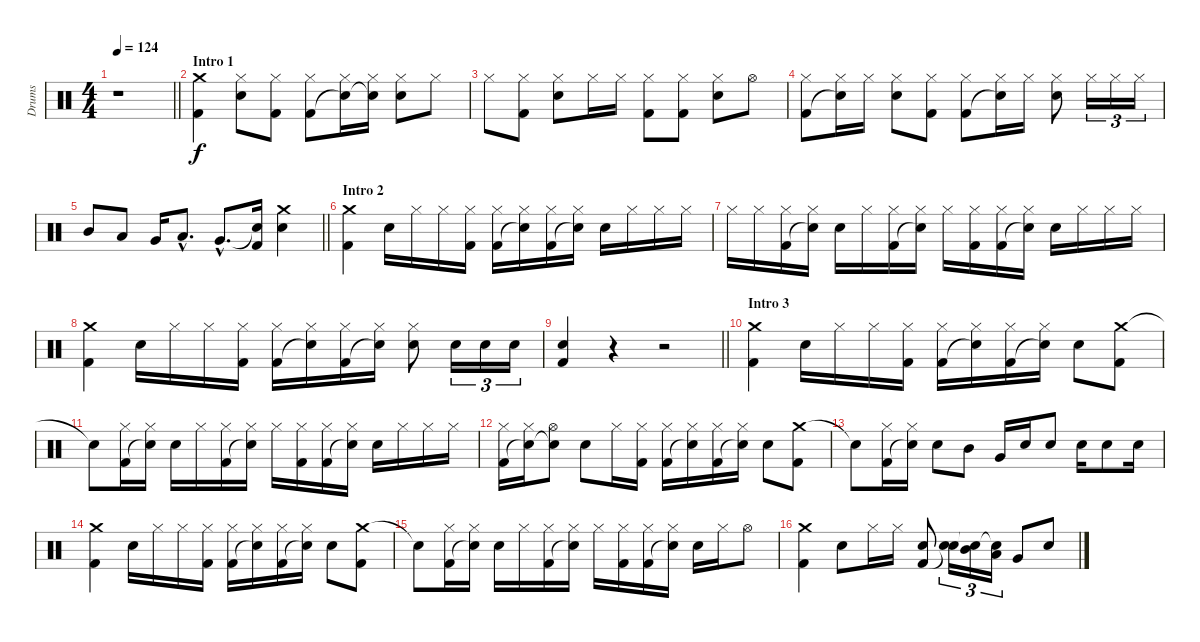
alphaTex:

\track ("Drums" "Drums") {instrument percussion}
\staff {score}
\articulation defaults
\ts (4 4)
\tempo 124
\clef neutral
\barLineRight lightlight
\ks aminor
r.1{dy f} |
\section ("" "Intro 1")
("Crash medium (hit)" "Kick (hit) 2").4 ("Hi-Hat (closed)" "Electric Snare (hit)").8 ("Hi-Hat (closed)" "Kick (hit) 2").8 ("Hi-Hat (closed)" "Kick (hit) 2").8 ("Hi-Hat (closed)" "Snare (hit)"{t}).16 ("Hi-Hat (closed)" "Snare (hit)"{t}).16 ("Hi-Hat (closed)" "Electric Snare (hit)").8 "Hi-Hat (closed)".8 |
"Hi-Hat (closed)".8 ("Hi-Hat (closed)" "Kick (hit) 2").8 ("Hi-Hat (closed)" "Electric Snare (hit)").8 "Hi-Hat (closed)".16 "Hi-Hat (closed)".16 ("Hi-Hat (closed)" "Kick (hit) 2").8 ("Hi-Hat (closed)" "Kick (hit) 2").8 ("Hi-Hat (closed)" "Electric Snare (hit)").8 "Hi-Hat (open)".8 |
("Hi-Hat (closed)" "Kick (hit) 2").8 ("Hi-Hat (closed)" "Snare (hit)"{t}).16 "Hi-Hat (closed)".16 ("Hi-Hat (closed)" "Electric Snare (hit)").8 ("Hi-Hat (closed)" "Kick (hit) 2").8 ("Hi-Hat (closed)" "Kick (hit) 2").8 ("Hi-Hat (closed)" "Snare (hit)"{t}).16 "Hi-Hat (closed)".16 ("Hi-Hat (closed)" "Electric Snare (hit)").8 "Hi-Hat (closed)".16{tu (3 2)} "Hi-Hat (closed)".16{tu (3 2)} "Hi-Hat (closed)".16{tu (3 2)} |
\barLineRight lightlight "Mid Tom (hit)".8 "Low Tom (hit)".8 "Very Low Tom (hit)".16 "Low Tom (hit)"{hac}.8{d} "Very Low Tom (hit)"{hac}.8{d}
("Snare (hit)"{t} "Kick (hit) 2").16 ("Crash medium (hit)" "Electric Snare (hit)").4 |
\section ("" "Intro 2")
("Crash medium (hit)" "Kick (hit) 2").4 "Electric Snare (hit)".16 "Hi-Hat (closed)".16 "Hi-Hat (closed)".16 ("Hi-Hat (closed)" "Kick (hit) 2").16 ("Hi-Hat (closed)" "Kick (hit) 2").16 ("Hi-Hat (closed)" "Snare (hit)"{t}).16 ("Hi-Hat (closed)" "Kick (hit) 2").16 ("Hi-Hat (closed)" "Snare (hit)"{t}).16 "Electric Snare (hit)".16 "Hi-Hat (closed)".16 "Hi-Hat (closed)".16 "Hi-Hat (closed)".16 |
"Hi-Hat (closed)".16 "Hi-Hat (closed)".16 ("Hi-Hat (closed)" "Kick (hit) 2").16 ("Hi-Hat (closed)" "Snare (hit)"{t}).16 "Electric Snare (hit)".16 "Hi-Hat (closed)".16 ("Hi-Hat (closed)" "Kick (hit) 2").16 ("Hi-Hat (closed)" "Snare (hit)"{t}).16 "Hi-Hat (closed)".16 ("Hi-Hat (closed)" "Kick (hit) 2").16 ("Hi-Hat (closed)" "Kick (hit) 2").16 ("Hi-Hat (closed)" "Snare (hit)"{t}).16 "Electric Snare (hit)".16 "Hi-Hat (closed)".16 "Hi-Hat (closed)".16 "Hi-Hat (closed)".16 |
("Crash medium (hit)" "Kick (hit) 2").4 "Electric Snare (hit)".16 "Hi-Hat (closed)".16 "Hi-Hat (closed)".16 ("Hi-Hat (closed)" "Kick (hit) 2").16 ("Hi-Hat (closed)" "Kick (hit) 2").16 ("Hi-Hat (closed)" "Snare (hit)"{t}).16 ("Hi-Hat (closed)" "Kick (hit) 2").16 ("Hi-Hat (closed)" "Snare (hit)"{t}).16 ("Hi-Hat (closed)" "Electric Snare (hit)").8 "Electric Snare (hit)".16{tu (3 2)} "Electric Snare (hit)".16{tu (3 2)} "Electric Snare (hit)".16{tu (3 2)} |
\barLineRight lightlight
("Electric Snare (hit)" "Kick (hit) 2").4 r.4 r.2 |
\section ("" "Intro 3")
("Crash medium (hit)" "Kick (hit) 2").4 "Electric Snare (hit)".16 "Hi-Hat (closed)".16 "Hi-Hat (closed)".16 ("Hi-Hat (closed)" "Kick (hit) 2").16 ("Hi-Hat (closed)" "Kick (hit) 2").16 ("Hi-Hat (closed)" "Snare (hit)"{t}).16 ("Hi-Hat (closed)" "Kick (hit) 2").16 ("Hi-Hat (closed)" "Snare (hit)"{t}).16 "Electric Snare (hit)".8 ("Crash medium (hit)" "Kick (hit) 2").8 |
"Snare (hit)"{t}.8 ("Hi-Hat (closed)" "Kick (hit) 2").16 ("Hi-Hat (closed)" "Snare (hit)"{t}).16 "Electric Snare (hit)".16 "Hi-Hat (closed)".16 ("Hi-Hat (closed)" "Kick (hit) 2").16 ("Hi-Hat (closed)" "Snare (hit)"{t}).16 "Hi-Hat (closed)".16 ("Hi-Hat (closed)" "Kick (hit) 2").16 ("Hi-Hat (closed)" "Kick (hit) 2").16 ("Hi-Hat (closed)" "Snare (hit)"{t}).16 "Electric Snare (hit)".16 "Hi-Hat (closed)".16 "Hi-Hat (closed)".16 "Hi-Hat (closed)".16 |
("Hi-Hat (closed)" "Kick (hit) 2").16 ("Hi-Hat (closed)" "Snare (hit)"{t}).16 ("Hi-Hat (open)" "Snare (hit)"{t}).8 "Electric Snare (hit)".8 "Hi-Hat (closed)".16 ("Hi-Hat (closed)" "Kick (hit) 2").16 ("Hi-Hat (closed)" "Kick (hit) 2").16 ("Hi-Hat (closed)" "Snare (hit)"{t}).16 ("Hi-Hat (closed)" "Kick (hit) 2").16 ("Hi-Hat (closed)" "Snare (hit)"{t}).16 "Electric Snare (hit)".8 ("Crash medium (hit)" "Kick (hit) 2").8 |
"Snare (hit)"{t}.8 ("Hi-Hat (closed)" "Kick (hit) 2").16 ("Hi-Hat (closed)" "Snare (hit)"{t}).16 "Electric Snare (hit)".8 "Mid Tom (hit)".8 "Very Low Tom (hit)".16 "Electric Snare (hit)".16 "Electric Snare (hit)".8 "Electric Snare (hit)".16 "Electric Snare (hit)".8 "Electric Snare (hit)".16 |
("Crash medium (hit)" "Kick (hit) 2").4 "Electric Snare (hit)".16 "Hi-Hat (closed)".16 "Hi-Hat (closed)".16 ("Hi-Hat (closed)" "Kick (hit) 2").16 ("Hi-Hat (closed)" "Kick (hit) 2").16 ("Hi-Hat (closed)" "Snare (hit)"{t}).16 ("Hi-Hat (closed)" "Kick (hit) 2").16 ("Hi-Hat (closed)" "Snare (hit)"{t}).16 "Electric Snare (hit)".8 ("Crash medium (hit)" "Kick (hit) 2").8 |
"Snare (hit)"{t}.8 ("Hi-Hat (closed)" "Kick (hit) 2").16 ("Hi-Hat (closed)" "Snare (hit)"{t}).16 "Electric Snare (hit)".16 "Hi-Hat (closed)".16 ("Hi-Hat (closed)" "Kick (hit) 2").16 ("Hi-Hat (closed)" "Snare (hit)"{t}).16 "Hi-Hat (closed)".16 ("Hi-Hat (closed)" "Kick (hit) 2").16 ("Hi-Hat (closed)" "Kick (hit) 2").16 ("Hi-Hat (closed)" "Snare (hit)"{t}).16 "Electric Snare (hit)".16 "Hi-Hat (closed)".16 "Hi-Hat (open)".8 |
("Crash medium (hit)" "Kick (hit) 2").4 "Electric Snare (hit)".8 "Hi-Hat (closed)".16 "Hi-Hat (closed)".16 ("Electric Snare (hit)" "Kick (hit) 2").8 ("Electric Snare (hit)" "Snare (hit)"{t}).16{tu (3 2)} ("Mid Tom (hit)" "Snare (hit)"{t}).16{tu (3 2)} ("Low Tom (hit)" "Snare (hit)"{t}).16{tu (3 2)} "Very Low Tom (hit)".8 "Electric Snare (hit)".8
